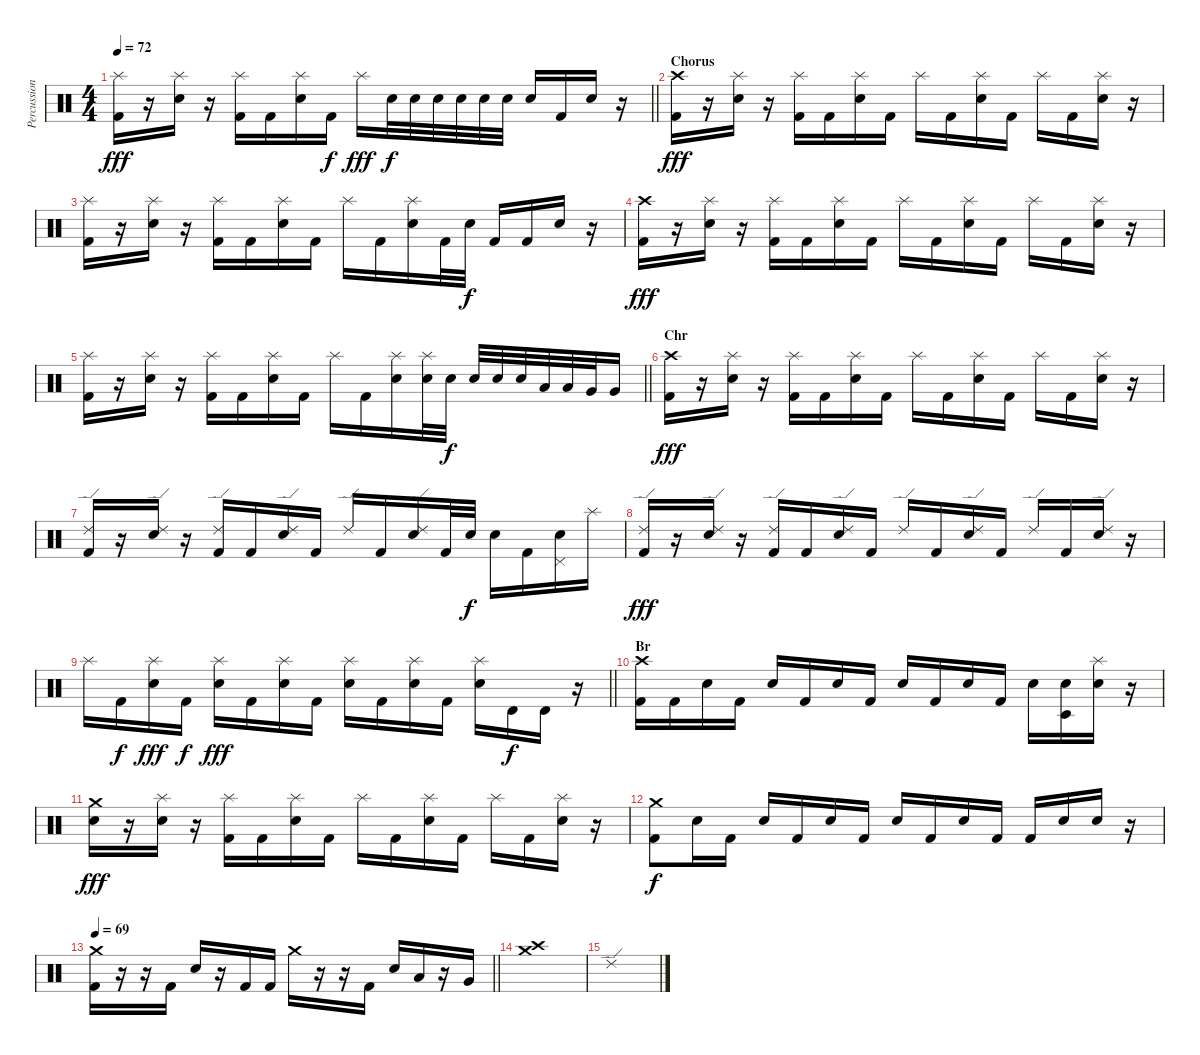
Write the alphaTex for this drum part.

\track ("Percussion" "Percussion") {instrument percussion}
\staff {score}
\articulation defaults
\ts (4 4)
\tempo 72
\clef neutral
\barLineRight lightlight
\ks c
("Splash (hit)" "Kick (hit) 2").16{dy fff} r.16 ("Splash (hit)" "Electric Snare (hit)").16 r.16 ("Splash (hit)" "Kick (hit) 2").16 "Kick (hit) 2".16 ("Splash (hit)" "Electric Snare (hit)").16 "Kick (hit) 2".16{dy f} "Splash (hit)".16{dy fff} "Electric Snare (hit)".32{dy f} "Electric Snare (hit)".32 "Electric Snare (hit)".32 "Electric Snare (hit)".32 "Electric Snare (hit)".32 "Electric Snare (hit)".32 "Electric Snare (hit)".16 "Kick (hit) 2".16 "Electric Snare (hit)".16 r.16 |
\section ("" "Chorus")
("Crash high (hit)" "Kick (hit) 2").16{dy fff} r.16 ("Splash (hit)" "Electric Snare (hit)").16 r.16 ("Splash (hit)" "Kick (hit) 2").16 "Kick (hit) 2".16 ("Splash (hit)" "Electric Snare (hit)").16 "Kick (hit) 2".16 "Splash (hit)".16 "Kick (hit) 2".16 ("Splash (hit)" "Electric Snare (hit)").16 "Kick (hit) 2".16 "Splash (hit)".16 "Kick (hit) 2".16 ("Splash (hit)" "Electric Snare (hit)").16 r.16 |
("Splash (hit)" "Kick (hit) 2").16 r.16 ("Splash (hit)" "Electric Snare (hit)").16 r.16 ("Splash (hit)" "Kick (hit) 2").16 "Kick (hit) 2".16 ("Splash (hit)" "Electric Snare (hit)").16 "Kick (hit) 2".16 "Splash (hit)".16 "Kick (hit) 2".16 ("Splash (hit)" "Electric Snare (hit)").16 "Kick (hit) 2".32 "Electric Snare (hit)".32{dy f} "Kick (hit) 2".16 "Kick (hit) 2".16 "Electric Snare (hit)".16 r.16 |
("Crash high (hit)" "Kick (hit) 2").16{dy fff} r.16 ("Splash (hit)" "Electric Snare (hit)").16 r.16 ("Splash (hit)" "Kick (hit) 2").16 "Kick (hit) 2".16 ("Splash (hit)" "Electric Snare (hit)").16 "Kick (hit) 2".16 "Splash (hit)".16 "Kick (hit) 2".16 ("Splash (hit)" "Electric Snare (hit)").16 "Kick (hit) 2".16 "Splash (hit)".16 "Kick (hit) 2".16 ("Splash (hit)" "Electric Snare (hit)").16 r.16 |
\barLineRight lightlight
("Splash (hit)" "Kick (hit) 2").16 r.16 ("Splash (hit)" "Electric Snare (hit)").16 r.16 ("Splash (hit)" "Kick (hit) 2").16 "Kick (hit) 2".16 ("Splash (hit)" "Electric Snare (hit)").16 "Kick (hit) 2".16 "Splash (hit)".16 "Kick (hit) 2".16 ("Splash (hit)" "Electric Snare (hit)").16 ("Splash (hit)" "Electric Snare (hit)").32 "Electric Snare (hit)".32{dy f} "Electric Snare (hit)".32 "Electric Snare (hit)".32 "Electric Snare (hit)".32 "Low Tom (hit)".32 "Low Tom (hit)".32 "Very Low Tom (hit)".32 "Very Low Tom (hit)".16 |
\section ("" "Chr")
("Crash high (hit)" "Kick (hit) 2").16{dy fff} r.16 ("Splash (hit)" "Electric Snare (hit)").16 r.16 ("Splash (hit)" "Kick (hit) 2").16 "Kick (hit) 2".16 ("Splash (hit)" "Electric Snare (hit)").16 "Kick (hit) 2".16 "Splash (hit)".16 "Kick (hit) 2".16 ("Splash (hit)" "Electric Snare (hit)").16 "Kick (hit) 2".16 "Splash (hit)".16 "Kick (hit) 2".16 ("Splash (hit)" "Electric Snare (hit)").16 r.16 |
("Ride (edge) 2" "Kick (hit) 2").16 r.16 ("Ride (edge) 2" "Electric Snare (hit)").16 r.16 ("Ride (edge) 2" "Kick (hit) 2").16 "Kick (hit) 2".16 ("Ride (edge) 2" "Electric Snare (hit)").16 "Kick (hit) 2".16 "Ride (edge) 2".16 "Kick (hit) 2".16 ("Ride (edge) 2" "Electric Snare (hit)").16 "Kick (hit) 2".32 "Electric Snare (hit)".32{dy f} "Electric Snare (hit)".16 "Kick (hit) 2".16 ("Pedal Hi-Hat (hit)" "Electric Snare (hit)").16 "Splash (hit)".16 |
("Ride (edge) 2" "Kick (hit) 2").16{dy fff} r.16 ("Ride (edge) 2" "Electric Snare (hit)").16 r.16 ("Ride (edge) 2" "Kick (hit) 2").16 "Kick (hit) 2".16 ("Ride (edge) 2" "Electric Snare (hit)").16 "Kick (hit) 2".16 "Ride (edge) 2".16 "Kick (hit) 2".16 ("Ride (edge) 2" "Electric Snare (hit)").16 "Kick (hit) 2".16 "Ride (edge) 2".16 "Kick (hit) 2".16 ("Ride (edge) 2" "Electric Snare (hit)").16 r.16 |
\barLineRight lightlight "Splash (hit)".16 "Kick (hit) 2".16{dy f}
("Splash (hit)" "Electric Snare (hit)").16{dy fff} "Kick (hit) 2".16{dy f} ("Splash (hit)" "Electric Snare (hit)").16{dy fff} "Kick (hit) 2".16 ("Splash (hit)" "Electric Snare (hit)").16 "Kick (hit) 2".16 ("Splash (hit)" "Electric Snare (hit)").16 "Kick (hit) 2".16 ("Splash (hit)" "Electric Snare (hit)").16 "Kick (hit) 2".16 ("Splash (hit)" "Electric Snare (hit)").16 "Timbale high (hit)".16{dy f} "Timbale high (hit)".16 r.16 |
\section ("" "Br")
("Crash high (hit)" "Kick (hit) 2").16 "Kick (hit) 2".16 "Electric Snare (hit)".16 "Kick (hit) 2".16 "Electric Snare (hit)".16 "Kick (hit) 2".16 "Electric Snare (hit)".16 "Kick (hit) 2".16 "Electric Snare (hit)".16 "Kick (hit) 2".16 "Electric Snare (hit)".16 "Kick (hit) 2".16 "Electric Snare (hit)".16 ("Timbale low (hit)" "Electric Snare (hit)").16 ("Splash (hit)" "Electric Snare (hit)").16 r.16 |
("Crash medium (hit)" "Electric Snare (hit)").16{dy fff} r.16 ("Splash (hit)" "Electric Snare (hit)").16 r.16 ("Splash (hit)" "Kick (hit) 2").16 "Kick (hit) 2".16 ("Splash (hit)" "Electric Snare (hit)").16 "Kick (hit) 2".16 "Splash (hit)".16 "Kick (hit) 2".16 ("Splash (hit)" "Electric Snare (hit)").16 "Kick (hit) 2".16 "Splash (hit)".16 "Kick (hit) 2".16 ("Splash (hit)" "Electric Snare (hit)").16 r.16 |
("Crash medium (hit)" "Kick (hit) 2").8{dy f} "Electric Snare (hit)".16 "Kick (hit) 2".16 "Electric Snare (hit)".16 "Kick (hit) 2".16 "Electric Snare (hit)".16 "Kick (hit) 2".16 "Electric Snare (hit)".16 "Kick (hit) 2".16 "Electric Snare (hit)".16 "Kick (hit) 2".16 "Kick (hit) 2".16 "Electric Snare (hit)".16 "Electric Snare (hit)".16 r.16 |
\tempo 69
\barLineRight lightlight
("Crash medium (hit)" "Kick (hit) 2").16 r.16 r.16 "Kick (hit) 2".16 "Electric Snare (hit)".16 r.16 "Kick (hit) 2".16 "Kick (hit) 2".16 "Crash medium (hit)".16 r.16 r.16 "Kick (hit) 2".16 "Electric Snare (hit)".16 "Low Tom (hit)".16 r.16 "Very Low Tom (hit)".16 |
("Crash medium (hit)" "Crash high (hit)").1 |
"Ride (edge) 2".1
